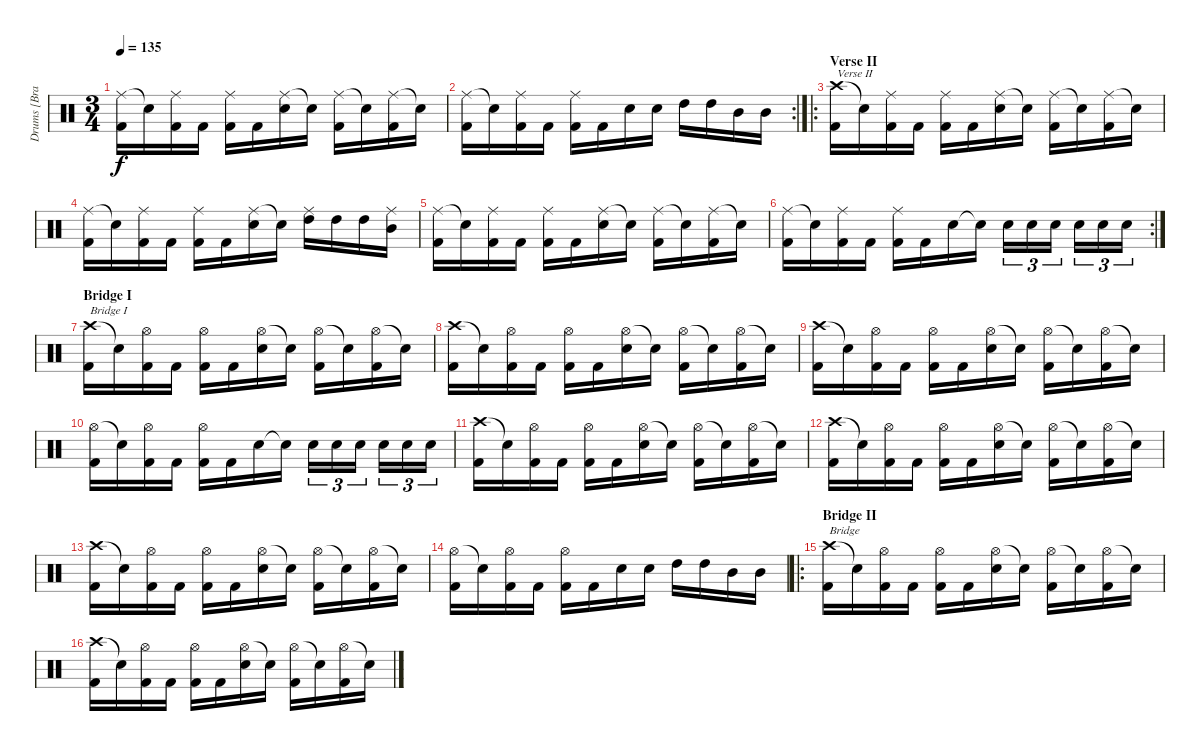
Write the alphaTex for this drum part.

\track ("Drums [Brann Dailor]" "Drums [Bra") {instrument percussion}
\staff {score}
\articulation defaults
\ts (3 4)
\tempo 135
\clef neutral
\ks c
("Ride (middle)" "Kick (hit) 2").16{dy f} "Snare (hit)"{t}.16 ("Ride (middle)" "Kick (hit) 2").16 "Kick (hit) 2".16 ("Ride (middle)" "Kick (hit) 2").16 "Kick (hit) 2".16 ("Ride (middle)" "Electric Snare (hit)").16 "Snare (hit)"{t}.16 ("Ride (middle)" "Kick (hit) 2").16 "Snare (hit)"{t}.16 ("Ride (middle)" "Kick (hit) 2").16 "Snare (hit)"{t}.16 |
\rc 2
("Ride (middle)" "Kick (hit) 2").16 "Snare (hit)"{t}.16 ("Ride (middle)" "Kick (hit) 2").16 "Kick (hit) 2".16 ("Ride (middle)" "Kick (hit) 2").16 "Kick (hit) 2".16 "Electric Snare (hit)".16 "Electric Snare (hit)".16 "High Tom (hit)".16 "High Tom (hit)".16 "Mid Tom (hit)".16 "Mid Tom (hit)".16 |
\ro
\section ("" "Verse II")
("Crash high (hit)" "Kick (hit) 2").16{txt "Verse II"} "Snare (hit)"{t}.16 ("Ride (middle)" "Kick (hit) 2").16 "Kick (hit) 2".16 ("Ride (middle)" "Kick (hit) 2").16 "Kick (hit) 2".16 ("Ride (middle)" "Electric Snare (hit)").16 "Snare (hit)"{t}.16 ("Ride (middle)" "Kick (hit) 2").16 "Snare (hit)"{t}.16 ("Ride (middle)" "Kick (hit) 2").16 "Snare (hit)"{t}.16 |
("Ride (middle)" "Kick (hit) 2").16 "Snare (hit)"{t}.16 ("Ride (middle)" "Kick (hit) 2").16 "Kick (hit) 2".16 ("Ride (middle)" "Kick (hit) 2").16 "Kick (hit) 2".16 ("Ride (middle)" "Electric Snare (hit)").16 "Snare (hit)"{t}.16 ("Ride (middle)" "High Tom (hit)").16 "High Tom (hit)".16 "High Tom (hit)".16 ("Ride (middle)" "Mid Tom (hit)").16 |
("Ride (middle)" "Kick (hit) 2").16 "Snare (hit)"{t}.16 ("Ride (middle)" "Kick (hit) 2").16 "Kick (hit) 2".16 ("Ride (middle)" "Kick (hit) 2").16 "Kick (hit) 2".16 ("Ride (middle)" "Electric Snare (hit)").16 "Snare (hit)"{t}.16 ("Ride (middle)" "Kick (hit) 2").16 "Snare (hit)"{t}.16 ("Ride (middle)" "Kick (hit) 2").16 "Snare (hit)"{t}.16 |
\rc 2
("Ride (middle)" "Kick (hit) 2").16 "Snare (hit)"{t}.16 ("Ride (middle)" "Kick (hit) 2").16 "Kick (hit) 2".16 ("Ride (middle)" "Kick (hit) 2").16 "Kick (hit) 2".16 "Electric Snare (hit)".16 "Electric Snare (hit)"{t}.16 "Electric Snare (hit)".16{tu (3 2)} "Electric Snare (hit)".16{tu (3 2)} "Electric Snare (hit)".16{tu (3 2)} "Electric Snare (hit)".16{tu (3 2)} "Electric Snare (hit)".16{tu (3 2)} "Electric Snare (hit)".16{tu (3 2)} |
\section ("" "Bridge I")
("Crash high (hit)" "Kick (hit) 2").16{txt "Bridge I"} "Snare (hit)"{t}.16 ("Hi-Hat (open)" "Kick (hit) 2").16 "Kick (hit) 2".16 ("Hi-Hat (open)" "Kick (hit) 2").16 "Kick (hit) 2".16 ("Hi-Hat (open)" "Electric Snare (hit)").16 "Snare (hit)"{t}.16 ("Hi-Hat (open)" "Kick (hit) 2").16 "Snare (hit)"{t}.16 ("Hi-Hat (open)" "Kick (hit) 2").16 "Snare (hit)"{t}.16 |
("Crash high (hit)" "Kick (hit) 2").16 "Snare (hit)"{t}.16 ("Hi-Hat (open)" "Kick (hit) 2").16 "Kick (hit) 2".16 ("Hi-Hat (open)" "Kick (hit) 2").16 "Kick (hit) 2".16 ("Hi-Hat (open)" "Electric Snare (hit)").16 "Snare (hit)"{t}.16 ("Hi-Hat (open)" "Kick (hit) 2").16 "Snare (hit)"{t}.16 ("Hi-Hat (open)" "Kick (hit) 2").16 "Snare (hit)"{t}.16 |
("Crash high (hit)" "Kick (hit) 2").16 "Snare (hit)"{t}.16 ("Hi-Hat (open)" "Kick (hit) 2").16 "Kick (hit) 2".16 ("Hi-Hat (open)" "Kick (hit) 2").16 "Kick (hit) 2".16 ("Hi-Hat (open)" "Electric Snare (hit)").16 "Snare (hit)"{t}.16 ("Hi-Hat (open)" "Kick (hit) 2").16 "Snare (hit)"{t}.16 ("Hi-Hat (open)" "Kick (hit) 2").16 "Snare (hit)"{t}.16 |
("Hi-Hat (open)" "Kick (hit) 2").16 "Snare (hit)"{t}.16 ("Hi-Hat (open)" "Kick (hit) 2").16 "Kick (hit) 2".16 ("Hi-Hat (open)" "Kick (hit) 2").16 "Kick (hit) 2".16 "Electric Snare (hit)".16 "Electric Snare (hit)"{t}.16 "Electric Snare (hit)".16{tu (3 2)} "Electric Snare (hit)".16{tu (3 2)} "Electric Snare (hit)".16{tu (3 2)} "Electric Snare (hit)".16{tu (3 2)} "Electric Snare (hit)".16{tu (3 2)} "Electric Snare (hit)".16{tu (3 2)} |
("Crash high (hit)" "Kick (hit) 2").16 "Snare (hit)"{t}.16 ("Hi-Hat (open)" "Kick (hit) 2").16 "Kick (hit) 2".16 ("Hi-Hat (open)" "Kick (hit) 2").16 "Kick (hit) 2".16 ("Hi-Hat (open)" "Electric Snare (hit)").16 "Snare (hit)"{t}.16 ("Hi-Hat (open)" "Kick (hit) 2").16 "Snare (hit)"{t}.16 ("Hi-Hat (open)" "Kick (hit) 2").16 "Snare (hit)"{t}.16 |
("Crash high (hit)" "Kick (hit) 2").16 "Snare (hit)"{t}.16 ("Hi-Hat (open)" "Kick (hit) 2").16 "Kick (hit) 2".16 ("Hi-Hat (open)" "Kick (hit) 2").16 "Kick (hit) 2".16 ("Hi-Hat (open)" "Electric Snare (hit)").16 "Snare (hit)"{t}.16 ("Hi-Hat (open)" "Kick (hit) 2").16 "Snare (hit)"{t}.16 ("Hi-Hat (open)" "Kick (hit) 2").16 "Snare (hit)"{t}.16 |
("Crash high (hit)" "Kick (hit) 2").16 "Snare (hit)"{t}.16 ("Hi-Hat (open)" "Kick (hit) 2").16 "Kick (hit) 2".16 ("Hi-Hat (open)" "Kick (hit) 2").16 "Kick (hit) 2".16 ("Hi-Hat (open)" "Electric Snare (hit)").16 "Snare (hit)"{t}.16 ("Hi-Hat (open)" "Kick (hit) 2").16 "Snare (hit)"{t}.16 ("Hi-Hat (open)" "Kick (hit) 2").16 "Snare (hit)"{t}.16 |
("Hi-Hat (open)" "Kick (hit) 2").16 "Snare (hit)"{t}.16 ("Hi-Hat (open)" "Kick (hit) 2").16 "Kick (hit) 2".16 ("Hi-Hat (open)" "Kick (hit) 2").16 "Kick (hit) 2".16 "Electric Snare (hit)".16 "Electric Snare (hit)".16 "High Tom (hit)".16 "High Tom (hit)".16 "Mid Tom (hit)".16 "Mid Tom (hit)".16 |
\ro
\section ("" "Bridge II")
("Crash high (hit)" "Kick (hit) 2").16{txt "Bridge"} "Snare (hit)"{t}.16 ("Hi-Hat (open)" "Kick (hit) 2").16 "Kick (hit) 2".16 ("Hi-Hat (open)" "Kick (hit) 2").16 "Kick (hit) 2".16 ("Hi-Hat (open)" "Electric Snare (hit)").16 "Snare (hit)"{t}.16 ("Hi-Hat (open)" "Kick (hit) 2").16 "Snare (hit)"{t}.16 ("Hi-Hat (open)" "Kick (hit) 2").16 "Snare (hit)"{t}.16 |
("Crash high (hit)" "Kick (hit) 2").16 "Snare (hit)"{t}.16 ("Hi-Hat (open)" "Kick (hit) 2").16 "Kick (hit) 2".16 ("Hi-Hat (open)" "Kick (hit) 2").16 "Kick (hit) 2".16 ("Hi-Hat (open)" "Electric Snare (hit)").16 "Snare (hit)"{t}.16 ("Hi-Hat (open)" "Kick (hit) 2").16 "Snare (hit)"{t}.16 ("Hi-Hat (open)" "Kick (hit) 2").16 "Snare (hit)"{t}.16
